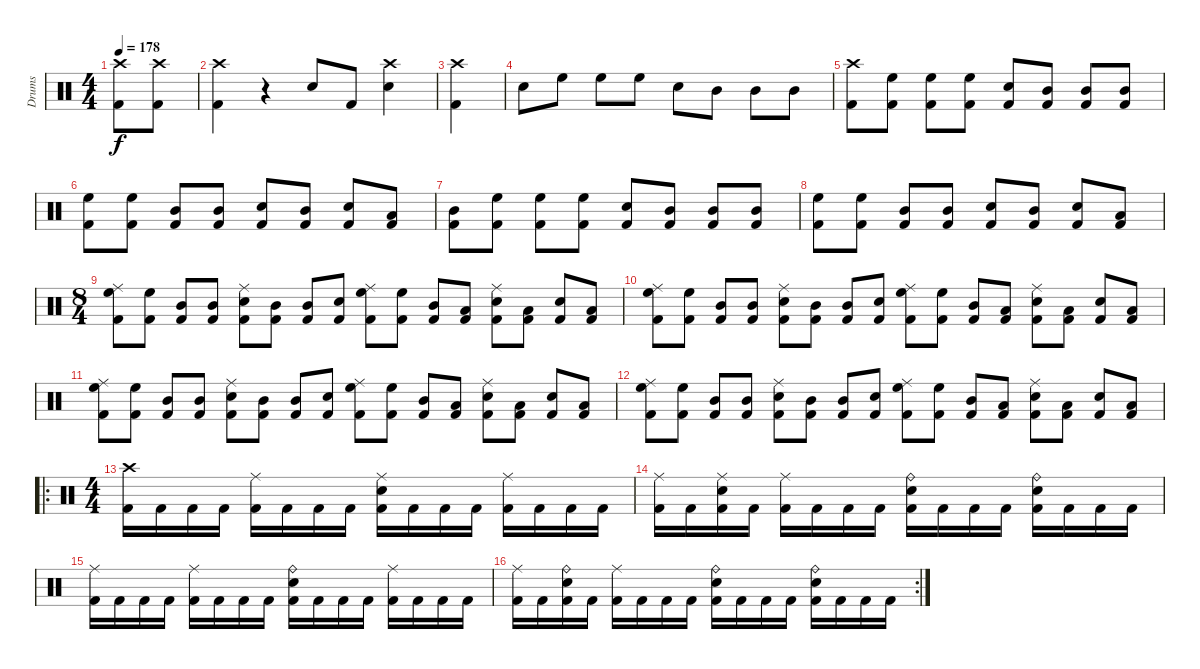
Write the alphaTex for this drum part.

\track ("Drums" "Drums") {instrument percussion}
\staff {score}
\articulation defaults
\ts (4 4)
\tempo 178
\clef neutral
\ks c
("Crash high (hit)" "Kick (hit) 2").8{dy f} ("Crash high (hit)" "Kick (hit) 2").8 |
("Crash high (hit)" "Kick (hit) 2").4 r.4 "Snare (hit) 2".8 "Kick (hit) 2".8 ("Crash high (hit)" "Snare (hit) 2").4 |
("Crash high (hit)" "Kick (hit) 2").4 |
"Snare (hit) 2".8 "High Floor Tom (hit)".8 "High Floor Tom (hit)".8 "High Floor Tom (hit)".8 "Snare (hit) 2".8 "Mid Tom (hit)".8 "Mid Tom (hit)".8 "Mid Tom (hit)".8 |
("Crash high (hit)" "Kick (hit) 2").8 ("Kick (hit) 2" "High Floor Tom (hit)").8 ("Kick (hit) 2" "High Floor Tom (hit)").8 ("Kick (hit) 2" "High Floor Tom (hit)").8 ("Kick (hit) 2" "Snare (hit) 2").8 ("Kick (hit) 2" "Mid Tom (hit)").8 ("Kick (hit) 2" "Mid Tom (hit)").8 ("Kick (hit) 2" "Mid Tom (hit)").8 |
("High Floor Tom (hit)" "Kick (hit) 2").8 ("High Floor Tom (hit)" "Kick (hit) 2").8 ("Mid Tom (hit)" "Kick (hit) 2").8 ("Mid Tom (hit)" "Kick (hit) 2").8 ("Snare (hit) 2" "Kick (hit) 2").8 ("Mid Tom (hit)" "Kick (hit) 2").8 ("Snare (hit) 2" "Kick (hit) 2").8 ("Low Tom (hit)" "Kick (hit) 2").8 |
("Mid Tom (hit)" "Kick (hit) 2").8 ("Kick (hit) 2" "High Floor Tom (hit)").8 ("Kick (hit) 2" "High Floor Tom (hit)").8 ("Kick (hit) 2" "High Floor Tom (hit)").8 ("Kick (hit) 2" "Snare (hit) 2").8 ("Kick (hit) 2" "Mid Tom (hit)").8 ("Kick (hit) 2" "Mid Tom (hit)").8 ("Kick (hit) 2" "Mid Tom (hit)").8 |
("High Floor Tom (hit)" "Kick (hit) 2").8 ("High Floor Tom (hit)" "Kick (hit) 2").8 ("Mid Tom (hit)" "Kick (hit) 2").8 ("Mid Tom (hit)" "Kick (hit) 2").8 ("Snare (hit) 2" "Kick (hit) 2").8 ("Mid Tom (hit)" "Kick (hit) 2").8 ("Snare (hit) 2" "Kick (hit) 2").8 ("Low Tom (hit)" "Kick (hit) 2").8 |
\ts (8 4)
("Ride (middle)" "High Floor Tom (hit)" "Kick (hit) 2").8 ("High Floor Tom (hit)" "Kick (hit) 2").8 ("Mid Tom (hit)" "Kick (hit) 2").8 ("Mid Tom (hit)" "Kick (hit) 2").8 ("Ride (middle)" "Snare (hit) 2" "Kick (hit) 2").8 ("Mid Tom (hit)" "Kick (hit) 2").8 ("Mid Tom (hit)" "Kick (hit) 2").8 ("Snare (hit) 2" "Kick (hit) 2").8 ("Ride (middle)" "High Floor Tom (hit)" "Kick (hit) 2").8 ("High Floor Tom (hit)" "Kick (hit) 2").8 ("Mid Tom (hit)" "Kick (hit) 2").8 ("Low Tom (hit)" "Kick (hit) 2").8 ("Ride (middle)" "Snare (hit) 2" "Kick (hit) 2").8 ("Low Tom (hit)" "Kick (hit) 2").8 ("Snare (hit) 2" "Kick (hit) 2").8 ("Low Tom (hit)" "Kick (hit) 2").8 |
("Ride (middle)" "High Floor Tom (hit)" "Kick (hit) 2").8 ("High Floor Tom (hit)" "Kick (hit) 2").8 ("Mid Tom (hit)" "Kick (hit) 2").8 ("Mid Tom (hit)" "Kick (hit) 2").8 ("Ride (middle)" "Snare (hit) 2" "Kick (hit) 2").8 ("Mid Tom (hit)" "Kick (hit) 2").8 ("Mid Tom (hit)" "Kick (hit) 2").8 ("Snare (hit) 2" "Kick (hit) 2").8 ("Ride (middle)" "High Floor Tom (hit)" "Kick (hit) 2").8 ("High Floor Tom (hit)" "Kick (hit) 2").8 ("Mid Tom (hit)" "Kick (hit) 2").8 ("Low Tom (hit)" "Kick (hit) 2").8 ("Ride (middle)" "Snare (hit) 2" "Kick (hit) 2").8 ("Low Tom (hit)" "Kick (hit) 2").8 ("Snare (hit) 2" "Kick (hit) 2").8 ("Low Tom (hit)" "Kick (hit) 2").8 |
("Ride (middle)" "High Floor Tom (hit)" "Kick (hit) 2").8 ("High Floor Tom (hit)" "Kick (hit) 2").8 ("Mid Tom (hit)" "Kick (hit) 2").8 ("Mid Tom (hit)" "Kick (hit) 2").8 ("Ride (middle)" "Snare (hit) 2" "Kick (hit) 2").8 ("Mid Tom (hit)" "Kick (hit) 2").8 ("Mid Tom (hit)" "Kick (hit) 2").8 ("Snare (hit) 2" "Kick (hit) 2").8 ("Ride (middle)" "High Floor Tom (hit)" "Kick (hit) 2").8 ("High Floor Tom (hit)" "Kick (hit) 2").8 ("Mid Tom (hit)" "Kick (hit) 2").8 ("Low Tom (hit)" "Kick (hit) 2").8 ("Ride (middle)" "Snare (hit) 2" "Kick (hit) 2").8 ("Low Tom (hit)" "Kick (hit) 2").8 ("Snare (hit) 2" "Kick (hit) 2").8 ("Low Tom (hit)" "Kick (hit) 2").8 |
("Ride (middle)" "High Floor Tom (hit)" "Kick (hit) 2").8 ("High Floor Tom (hit)" "Kick (hit) 2").8 ("Mid Tom (hit)" "Kick (hit) 2").8 ("Mid Tom (hit)" "Kick (hit) 2").8 ("Ride (middle)" "Snare (hit) 2" "Kick (hit) 2").8 ("Mid Tom (hit)" "Kick (hit) 2").8 ("Mid Tom (hit)" "Kick (hit) 2").8 ("Snare (hit) 2" "Kick (hit) 2").8 ("Ride (middle)" "High Floor Tom (hit)" "Kick (hit) 2").8 ("High Floor Tom (hit)" "Kick (hit) 2").8 ("Mid Tom (hit)" "Kick (hit) 2").8 ("Low Tom (hit)" "Kick (hit) 2").8 ("Ride (middle)" "Snare (hit) 2" "Kick (hit) 2").8 ("Low Tom (hit)" "Kick (hit) 2").8 ("Snare (hit) 2" "Kick (hit) 2").8 ("Low Tom (hit)" "Kick (hit) 2").8 |
\ro
\ts (4 4)
("Crash high (hit)" "Kick (hit) 2").16 "Kick (hit) 2".16 "Kick (hit) 2".16 "Kick (hit) 2".16 ("Ride (middle)" "Kick (hit) 2").16 "Kick (hit) 2".16 "Kick (hit) 2".16 "Kick (hit) 2".16 ("Ride (middle)" "Snare (hit) 2" "Kick (hit) 2").16 "Kick (hit) 2".16 "Kick (hit) 2".16 "Kick (hit) 2".16 ("Ride (middle)" "Kick (hit) 2").16 "Kick (hit) 2".16 "Kick (hit) 2".16 "Kick (hit) 2".16 |
("Ride (middle)" "Kick (hit) 2").16 "Kick (hit) 2".16 ("Ride (middle)" "Snare (hit) 2" "Kick (hit) 2").16 "Kick (hit) 2".16 ("Ride (middle)" "Kick (hit) 2").16 "Kick (hit) 2".16 "Kick (hit) 2".16 "Kick (hit) 2".16 ("Ride (bell)" "Snare (hit) 2" "Kick (hit) 2").16 "Kick (hit) 2".16 "Kick (hit) 2".16 "Kick (hit) 2".16 ("Ride (bell)" "Snare (hit) 2" "Kick (hit) 2").16 "Kick (hit) 2".16 "Kick (hit) 2".16 "Kick (hit) 2".16 |
("Ride (middle)" "Kick (hit) 2").16 "Kick (hit) 2".16 "Kick (hit) 2".16 "Kick (hit) 2".16 ("Ride (middle)" "Kick (hit) 2").16 "Kick (hit) 2".16 "Kick (hit) 2".16 "Kick (hit) 2".16 ("Ride (bell)" "Snare (hit) 2" "Kick (hit) 2").16 "Kick (hit) 2".16 "Kick (hit) 2".16 "Kick (hit) 2".16 ("Ride (middle)" "Kick (hit) 2").16 "Kick (hit) 2".16 "Kick (hit) 2".16 "Kick (hit) 2".16 |
\rc 2
("Ride (middle)" "Kick (hit) 2").16 "Kick (hit) 2".16 ("Ride (bell)" "Snare (hit) 2" "Kick (hit) 2").16 "Kick (hit) 2".16 ("Ride (middle)" "Kick (hit) 2").16 "Kick (hit) 2".16 "Kick (hit) 2".16 "Kick (hit) 2".16 ("Ride (bell)" "Snare (hit) 2" "Kick (hit) 2").16 "Kick (hit) 2".16 "Kick (hit) 2".16 "Kick (hit) 2".16 ("Ride (bell)" "Snare (hit) 2" "Kick (hit) 2").16 "Kick (hit) 2".16 "Kick (hit) 2".16 "Kick (hit) 2".16
